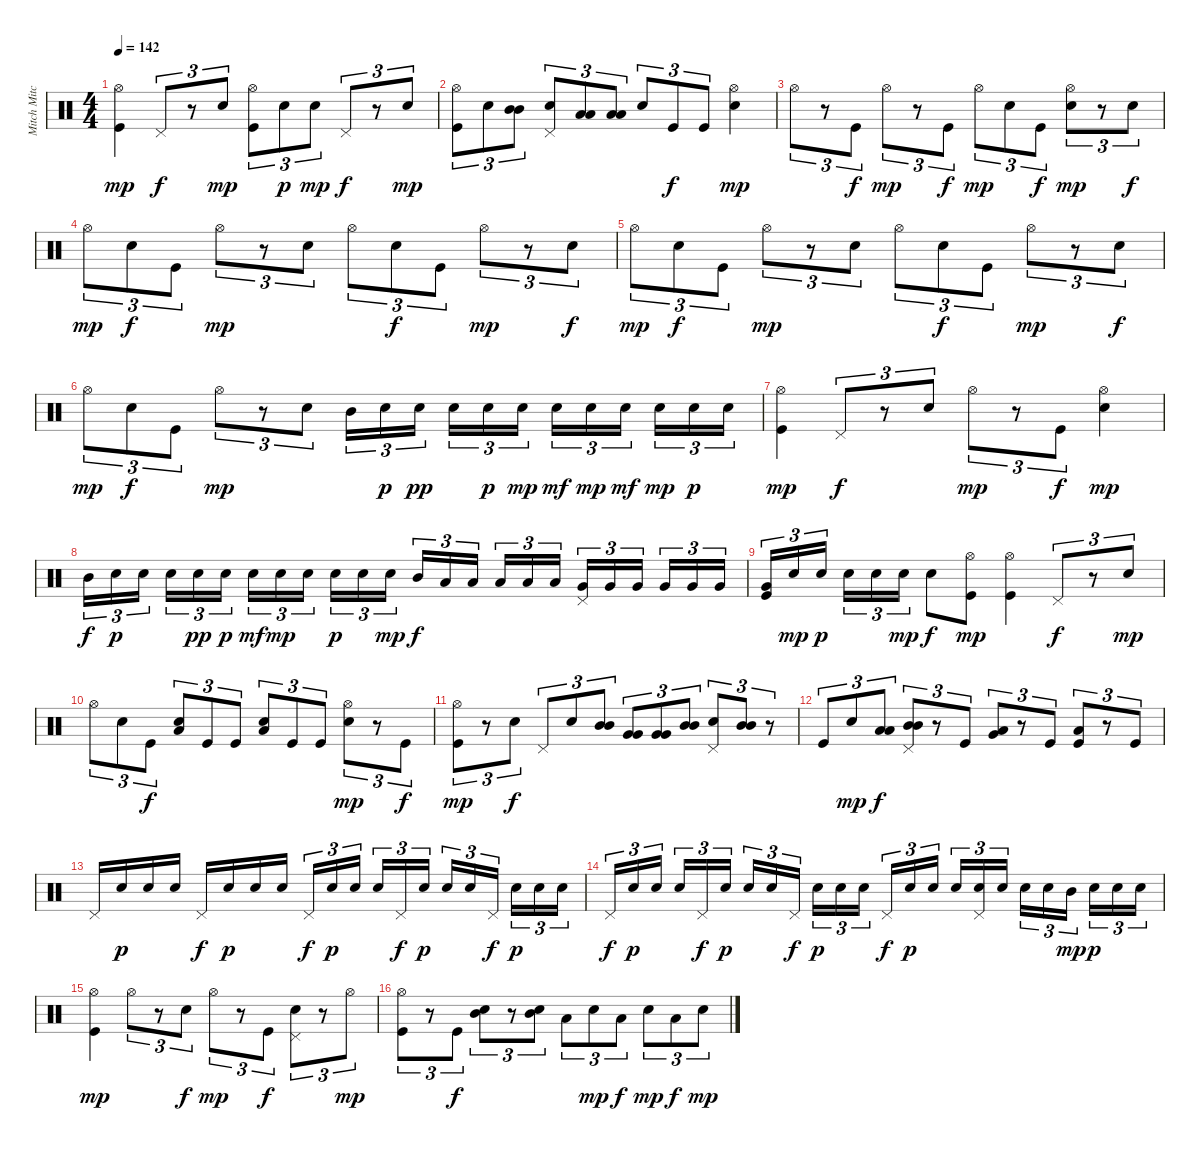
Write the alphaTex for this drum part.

\track ("Mitch Mitchell" "Mitch Mitc") {instrument percussion}
\staff {score}
\articulation defaults
\ts (4 4)
\tempo 142
\clef neutral
\ks c
("Hi-Hat (open)" "Kick (hit)").4{dy mp} "Pedal Hi-Hat (hit)".8{tu (3 2) dy f} r.8{tu (3 2)} "Electric Snare (hit)".8{tu (3 2) dy mp} ("Hi-Hat (open)" "Kick (hit)").8{tu (3 2)} "Electric Snare (hit)".8{tu (3 2) dy p} "Electric Snare (hit)".8{tu (3 2) dy mp} "Pedal Hi-Hat (hit)".8{tu (3 2) dy f} r.8{tu (3 2)} "Electric Snare (hit)".8{tu (3 2) dy mp} |
("Hi-Hat (open)" "Kick (hit)").8{tu (3 2)} "Electric Snare (hit)".8{tu (3 2)} ("Mid Tom (hit)" "Mid Tom (hit)").8{tu (3 2)} ("Pedal Hi-Hat (hit)" "Electric Snare (hit)").8{tu (3 2)} ("Low Tom (hit)" "Low Tom (hit)").8{tu (3 2)} ("Low Tom (hit)" "Low Tom (hit)").8{tu (3 2)} "Electric Snare (hit)".8{tu (3 2)} "Kick (hit)".8{tu (3 2) dy f} "Kick (hit)".8{tu (3 2)} ("Hi-Hat (open)" "Electric Snare (hit)").4{dy mp} |
"Hi-Hat (open)".8{tu (3 2)} r.8{tu (3 2)} "Kick (hit)".8{tu (3 2) dy f} "Hi-Hat (open)".8{tu (3 2) dy mp} r.8{tu (3 2)} "Kick (hit)".8{tu (3 2) dy f} "Hi-Hat (open)".8{tu (3 2) dy mp} "Electric Snare (hit)".8{tu (3 2)} "Kick (hit)".8{tu (3 2) dy f} ("Hi-Hat (open)" "Electric Snare (hit)").8{tu (3 2) dy mp} r.8{tu (3 2)} "Electric Snare (hit)".8{tu (3 2) dy f} |
"Hi-Hat (open)".8{tu (3 2) dy mp} "Electric Snare (hit)".8{tu (3 2) dy f} "Kick (hit)".8{tu (3 2)} "Hi-Hat (open)".8{tu (3 2) dy mp} r.8{tu (3 2)} "Electric Snare (hit)".8{tu (3 2)} "Hi-Hat (open)".8{tu (3 2)} "Electric Snare (hit)".8{tu (3 2) dy f} "Kick (hit)".8{tu (3 2)} "Hi-Hat (open)".8{tu (3 2) dy mp} r.8{tu (3 2)} "Electric Snare (hit)".8{tu (3 2) dy f} |
"Hi-Hat (open)".8{tu (3 2) dy mp} "Electric Snare (hit)".8{tu (3 2) dy f} "Kick (hit)".8{tu (3 2)} "Hi-Hat (open)".8{tu (3 2) dy mp} r.8{tu (3 2)} "Electric Snare (hit)".8{tu (3 2)} "Hi-Hat (open)".8{tu (3 2)} "Electric Snare (hit)".8{tu (3 2) dy f} "Kick (hit)".8{tu (3 2)} "Hi-Hat (open)".8{tu (3 2) dy mp} r.8{tu (3 2)} "Electric Snare (hit)".8{tu (3 2) dy f} |
"Hi-Hat (open)".8{tu (3 2) dy mp} "Electric Snare (hit)".8{tu (3 2) dy f} "Kick (hit)".8{tu (3 2)} "Hi-Hat (open)".8{tu (3 2) dy mp} r.8{tu (3 2)} "Electric Snare (hit)".8{tu (3 2)} "Mid Tom (hit)".16{tu (3 2)} "Electric Snare (hit)".16{tu (3 2) dy p} "Electric Snare (hit)".16{tu (3 2) dy pp} "Electric Snare (hit)".16{tu (3 2)} "Electric Snare (hit)".16{tu (3 2) dy p} "Electric Snare (hit)".16{tu (3 2) dy mp} "Electric Snare (hit)".16{tu (3 2) dy mf} "Electric Snare (hit)".16{tu (3 2) dy mp} "Electric Snare (hit)".16{tu (3 2) dy mf} "Electric Snare (hit)".16{tu (3 2) dy mp} "Electric Snare (hit)".16{tu (3 2) dy p} "Electric Snare (hit)".16{tu (3 2)} |
("Hi-Hat (open)" "Kick (hit)").4{dy mp} "Pedal Hi-Hat (hit)".8{tu (3 2) dy f} r.8{tu (3 2)} "Electric Snare (hit)".8{tu (3 2)} "Hi-Hat (open)".8{tu (3 2) dy mp} r.8{tu (3 2)} "Kick (hit)".8{tu (3 2) dy f} ("Hi-Hat (open)" "Electric Snare (hit)").4{dy mp} |
"Mid Tom (hit)".16{tu (3 2) dy f} "Electric Snare (hit)".16{tu (3 2) dy p} "Electric Snare (hit)".16{tu (3 2)} "Electric Snare (hit)".16{tu (3 2)} "Electric Snare (hit)".16{tu (3 2) dy pp} "Electric Snare (hit)".16{tu (3 2) dy p} "Electric Snare (hit)".16{tu (3 2) dy mf} "Electric Snare (hit)".16{tu (3 2) dy mp} "Electric Snare (hit)".16{tu (3 2)} "Electric Snare (hit)".16{tu (3 2) dy p} "Electric Snare (hit)".16{tu (3 2)} "Electric Snare (hit)".16{tu (3 2) dy mp} "Mid Tom (hit)".16{tu (3 2) dy f} "Low Tom (hit)".16{tu (3 2)} "Low Tom (hit)".16{tu (3 2)} "Low Tom (hit)".16{tu (3 2)} "Low Tom (hit)".16{tu (3 2)} "Low Tom (hit)".16{tu (3 2)} ("Pedal Hi-Hat (hit)" "Very Low Tom (hit)").16{tu (3 2)} "Very Low Tom (hit)".16{tu (3 2)} "Very Low Tom (hit)".16{tu (3 2)} "Very Low Tom (hit)".16{tu (3 2)} "Very Low Tom (hit)".16{tu (3 2)} "Very Low Tom (hit)".16{tu (3 2)} |
("Very Low Tom (hit)" "Kick (hit)").16{tu (3 2)} "Electric Snare (hit)".16{tu (3 2) dy mp} "Electric Snare (hit)".16{tu (3 2) dy p} "Electric Snare (hit)".16{tu (3 2)} "Electric Snare (hit)".16{tu (3 2)} "Electric Snare (hit)".16{tu (3 2) dy mp} "Electric Snare (hit)".8{dy f} ("Hi-Hat (open)" "Kick (hit)").8{dy mp} ("Hi-Hat (open)" "Kick (hit)").4 "Pedal Hi-Hat (hit)".8{tu (3 2) dy f} r.8{tu (3 2)} "Electric Snare (hit)".8{tu (3 2) dy mp} |
"Hi-Hat (open)".8{tu (3 2)} "Electric Snare (hit)".8{tu (3 2)} "Kick (hit)".8{tu (3 2) dy f} ("Electric Snare (hit)" "Low Tom (hit)").8{tu (3 2)} "Kick (hit)".8{tu (3 2)} "Kick (hit)".8{tu (3 2)} ("Electric Snare (hit)" "Low Tom (hit)").8{tu (3 2)} "Kick (hit)".8{tu (3 2)} "Kick (hit)".8{tu (3 2)} ("Hi-Hat (open)" "Electric Snare (hit)").8{tu (3 2) dy mp} r.8{tu (3 2)} "Kick (hit)".8{tu (3 2) dy f} |
("Hi-Hat (open)" "Kick (hit)").8{tu (3 2) dy mp} r.8{tu (3 2)} "Electric Snare (hit)".8{tu (3 2) dy f} "Pedal Hi-Hat (hit)".8{tu (3 2)} "Electric Snare (hit)".8{tu (3 2)} ("Mid Tom (hit)" "Mid Tom (hit)").8{tu (3 2)} ("Very Low Tom (hit)" "Very Low Tom (hit)").8{tu (3 2)} ("Very Low Tom (hit)" "Very Low Tom (hit)").8{tu (3 2)} ("Mid Tom (hit)" "Mid Tom (hit)").8{tu (3 2)} ("Pedal Hi-Hat (hit)" "Electric Snare (hit)").8{tu (3 2)} ("Mid Tom (hit)" "Mid Tom (hit)").8{tu (3 2)} r.8{tu (3 2)} |
"Kick (hit)".8{tu (3 2)} "Electric Snare (hit)".8{tu (3 2) dy mp} ("Low Tom (hit)" "Low Tom (hit)").8{tu (3 2) dy f} ("Pedal Hi-Hat (hit)" "Mid Tom (hit)" "Mid Tom (hit)").8{tu (3 2)} r.8{tu (3 2)} "Kick (hit)".8{tu (3 2)} ("Low Tom (hit)" "Very Low Tom (hit)").8{tu (3 2)} r.8{tu (3 2)} "Kick (hit)".8{tu (3 2)} ("Low Tom (hit)" "Kick (hit)").8{tu (3 2)} r.8{tu (3 2)} "Kick (hit)".8{tu (3 2)} |
"Pedal Hi-Hat (hit)".16 "Electric Snare (hit)".16{dy p} "Electric Snare (hit)".16 "Electric Snare (hit)".16 "Pedal Hi-Hat (hit)".16{dy f} "Electric Snare (hit)".16{dy p} "Electric Snare (hit)".16 "Electric Snare (hit)".16 "Pedal Hi-Hat (hit)".16{tu (3 2) dy f} "Electric Snare (hit)".16{tu (3 2) dy p} "Electric Snare (hit)".16{tu (3 2)} "Electric Snare (hit)".16{tu (3 2)} "Pedal Hi-Hat (hit)".16{tu (3 2) dy f} "Electric Snare (hit)".16{tu (3 2) dy p} "Electric Snare (hit)".16{tu (3 2)} "Electric Snare (hit)".16{tu (3 2)} "Pedal Hi-Hat (hit)".16{tu (3 2) dy f} "Electric Snare (hit)".16{tu (3 2) dy p} "Electric Snare (hit)".16{tu (3 2)} "Electric Snare (hit)".16{tu (3 2)} |
"Pedal Hi-Hat (hit)".16{tu (3 2) dy f} "Electric Snare (hit)".16{tu (3 2) dy p} "Electric Snare (hit)".16{tu (3 2)} "Electric Snare (hit)".16{tu (3 2)} "Pedal Hi-Hat (hit)".16{tu (3 2) dy f} "Electric Snare (hit)".16{tu (3 2) dy p} "Electric Snare (hit)".16{tu (3 2)} "Electric Snare (hit)".16{tu (3 2)} "Pedal Hi-Hat (hit)".16{tu (3 2) dy f} "Electric Snare (hit)".16{tu (3 2) dy p} "Electric Snare (hit)".16{tu (3 2)} "Electric Snare (hit)".16{tu (3 2)} "Pedal Hi-Hat (hit)".16{tu (3 2) dy f} "Electric Snare (hit)".16{tu (3 2) dy p} "Electric Snare (hit)".16{tu (3 2)} "Electric Snare (hit)".16{tu (3 2)} ("Pedal Hi-Hat (hit)" "Electric Snare (hit)").16{tu (3 2)} "Electric Snare (hit)".16{tu (3 2)} "Electric Snare (hit)".16{tu (3 2)} "Electric Snare (hit)".16{tu (3 2)} "Mid Tom (hit)".16{tu (3 2) dy mp} "Electric Snare (hit)".16{tu (3 2) dy p} "Electric Snare (hit)".16{tu (3 2)} "Electric Snare (hit)".16{tu (3 2)} |
("Hi-Hat (open)" "Kick (hit)").4{dy mp} "Hi-Hat (open)".8{tu (3 2)} r.8{tu (3 2)} "Electric Snare (hit)".8{tu (3 2) dy f} "Hi-Hat (open)".8{tu (3 2) dy mp} r.8{tu (3 2)} "Kick (hit)".8{tu (3 2) dy f} ("Pedal Hi-Hat (hit)" "Electric Snare (hit)").8{tu (3 2)} r.8{tu (3 2)} "Hi-Hat (open)".8{tu (3 2) dy mp} |
("Hi-Hat (open)" "Kick (hit)").8{tu (3 2)} r.8{tu (3 2)} "Kick (hit)".8{tu (3 2) dy f} ("Mid Tom (hit)" "Electric Snare (hit)").8{tu (3 2)} r.8{tu (3 2)} ("Mid Tom (hit)" "Electric Snare (hit)").8{tu (3 2)} "Low Tom (hit)".8{tu (3 2)} "Electric Snare (hit)".8{tu (3 2) dy mp} "Low Tom (hit)".8{tu (3 2) dy f} "Electric Snare (hit)".8{tu (3 2) dy mp} "Low Tom (hit)".8{tu (3 2) dy f} "Electric Snare (hit)".8{tu (3 2) dy mp}
